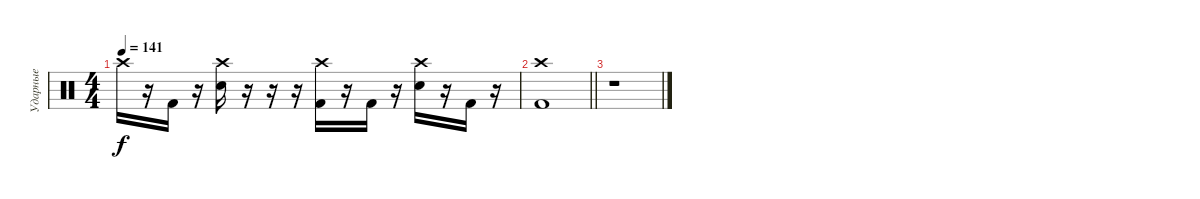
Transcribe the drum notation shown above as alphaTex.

\track ("Ударные" "Ударные") {instrument percussion}
\staff {score}
\articulation defaults
\ts (4 4)
\tempo 141
\clef neutral
\ks c "Crash high (hit)".16{dy f}
r.16 "Kick (hit) 2".16 r.16 ("Crash high (hit)" "Electric Snare (hit)").16 r.16 r.16 r.16 ("Crash high (hit)" "Kick (hit) 2").16 r.16 "Kick (hit) 2".16 r.16 ("Crash high (hit)" "Electric Snare (hit)").16 r.16 "Kick (hit) 2".16 r.16 |
\barLineRight lightlight
("Crash high (hit)" "Kick (hit) 2").1 |
r.1
